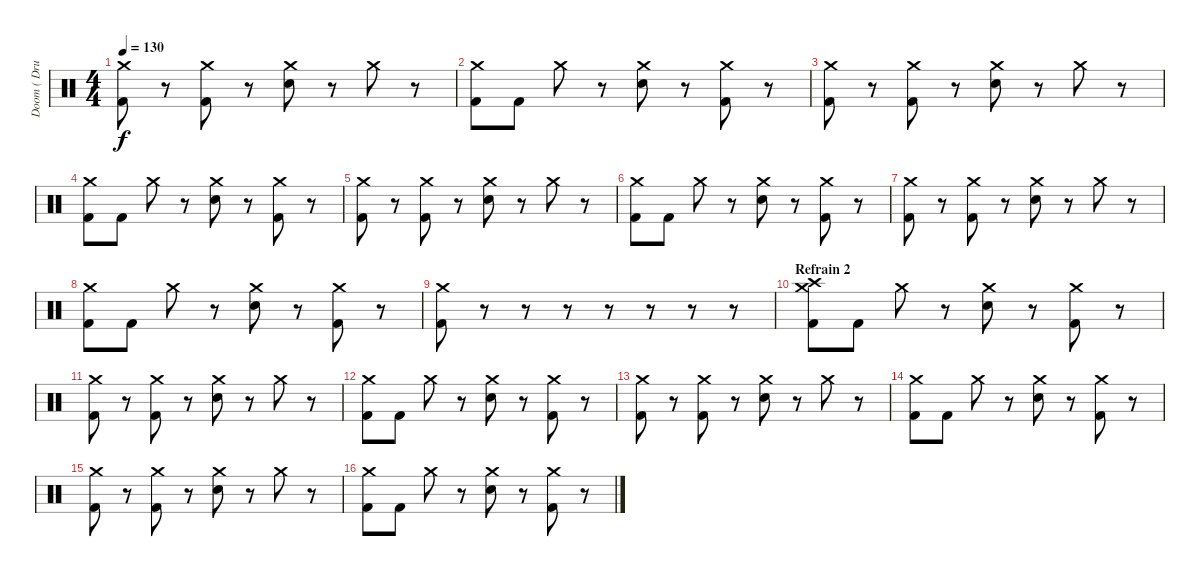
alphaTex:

\track ("Doom ( Drums )" "Doom ( Dru") {instrument percussion}
\staff {score}
\articulation defaults
\ts (4 4)
\tempo 130
\clef neutral
\ks c
("Kick (hit) 2" "Crash medium (hit)").8{dy f} r.8 ("Kick (hit) 2" "Crash medium (hit)").8 r.8 ("Electric Snare (hit)" "Crash medium (hit)").8 r.8 "Crash medium (hit)".8 r.8 |
("Kick (hit) 2" "Crash medium (hit)").8 "Kick (hit) 2".8 "Crash medium (hit)".8 r.8 ("Electric Snare (hit)" "Crash medium (hit)").8 r.8 ("Kick (hit) 2" "Crash medium (hit)").8 r.8 |
("Kick (hit) 2" "Crash medium (hit)").8 r.8 ("Kick (hit) 2" "Crash medium (hit)").8 r.8 ("Electric Snare (hit)" "Crash medium (hit)").8 r.8 "Crash medium (hit)".8 r.8 |
("Kick (hit) 2" "Crash medium (hit)").8 "Kick (hit) 2".8 "Crash medium (hit)".8 r.8 ("Electric Snare (hit)" "Crash medium (hit)").8 r.8 ("Kick (hit) 2" "Crash medium (hit)").8 r.8 |
("Kick (hit) 2" "Crash medium (hit)").8 r.8 ("Kick (hit) 2" "Crash medium (hit)").8 r.8 ("Electric Snare (hit)" "Crash medium (hit)").8 r.8 "Crash medium (hit)".8 r.8 |
("Kick (hit) 2" "Crash medium (hit)").8 "Kick (hit) 2".8 "Crash medium (hit)".8 r.8 ("Electric Snare (hit)" "Crash medium (hit)").8 r.8 ("Kick (hit) 2" "Crash medium (hit)").8 r.8 |
("Kick (hit) 2" "Crash medium (hit)").8 r.8 ("Kick (hit) 2" "Crash medium (hit)").8 r.8 ("Electric Snare (hit)" "Crash medium (hit)").8 r.8 "Crash medium (hit)".8 r.8 |
("Kick (hit) 2" "Crash medium (hit)").8 "Kick (hit) 2".8 "Crash medium (hit)".8 r.8 ("Electric Snare (hit)" "Crash medium (hit)").8 r.8 ("Kick (hit) 2" "Crash medium (hit)").8 r.8 |
("Kick (hit) 2" "Crash medium (hit)").8 r.8 r.8 r.8 r.8 r.8 r.8 r.8 |
\section ("" "Refrain 2")
("Crash high (hit)" "Kick (hit) 2" "Crash medium (hit)").8 "Kick (hit) 2".8 "Crash medium (hit)".8 r.8 ("Electric Snare (hit)" "Crash medium (hit)").8 r.8 ("Kick (hit) 2" "Crash medium (hit)").8 r.8 |
("Kick (hit) 2" "Crash medium (hit)").8 r.8 ("Kick (hit) 2" "Crash medium (hit)").8 r.8 ("Electric Snare (hit)" "Crash medium (hit)").8 r.8 "Crash medium (hit)".8 r.8 |
("Kick (hit) 2" "Crash medium (hit)").8 "Kick (hit) 2".8 "Crash medium (hit)".8 r.8 ("Electric Snare (hit)" "Crash medium (hit)").8 r.8 ("Kick (hit) 2" "Crash medium (hit)").8 r.8 |
("Kick (hit) 2" "Crash medium (hit)").8 r.8 ("Kick (hit) 2" "Crash medium (hit)").8 r.8 ("Electric Snare (hit)" "Crash medium (hit)").8 r.8 "Crash medium (hit)".8 r.8 |
("Kick (hit) 2" "Crash medium (hit)").8 "Kick (hit) 2".8 "Crash medium (hit)".8 r.8 ("Electric Snare (hit)" "Crash medium (hit)").8 r.8 ("Kick (hit) 2" "Crash medium (hit)").8 r.8 |
("Kick (hit) 2" "Crash medium (hit)").8 r.8 ("Kick (hit) 2" "Crash medium (hit)").8 r.8 ("Electric Snare (hit)" "Crash medium (hit)").8 r.8 "Crash medium (hit)".8 r.8 |
("Kick (hit) 2" "Crash medium (hit)").8 "Kick (hit) 2".8 "Crash medium (hit)".8 r.8 ("Electric Snare (hit)" "Crash medium (hit)").8 r.8 ("Kick (hit) 2" "Crash medium (hit)").8 r.8
